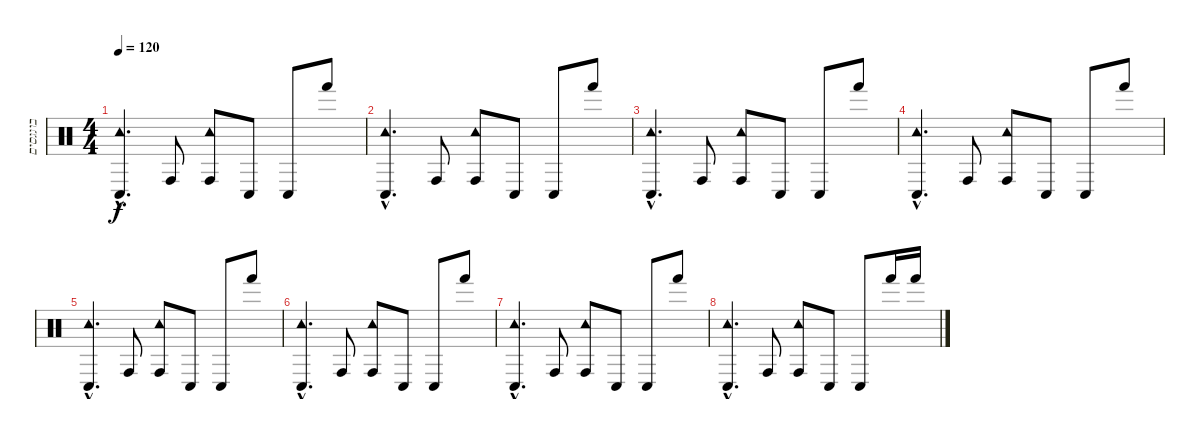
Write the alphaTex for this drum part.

\track ("בונגסים" "בונגסים") {instrument percussion}
\staff {score}
\articulation defaults
\ts (4 4)
\tempo 120
\clef neutral
\ks c
("Conga low (hit)"{hac} "Tambourine (hit)"{hac}).4{d dy f} "Conga high (hit)".8 ("Conga high (hit)" "Tambourine (hit)").8 "Conga low (hit)".8 "Conga low (hit)".8 "Hand (hit)".8 |
("Conga low (hit)"{hac} "Tambourine (hit)"{hac}).4{d} "Conga high (hit)".8 ("Conga high (hit)" "Tambourine (hit)").8 "Conga low (hit)".8 "Conga low (hit)".8 "Hand (hit)".8 |
("Conga low (hit)"{hac} "Tambourine (hit)"{hac}).4{d} "Conga high (hit)".8 ("Conga high (hit)" "Tambourine (hit)").8 "Conga low (hit)".8 "Conga low (hit)".8 "Hand (hit)".8 |
("Conga low (hit)"{hac} "Tambourine (hit)"{hac}).4{d} "Conga high (hit)".8 ("Conga high (hit)" "Tambourine (hit)").8 "Conga low (hit)".8 "Conga low (hit)".8 "Hand (hit)".8 |
("Conga low (hit)"{hac} "Tambourine (hit)"{hac}).4{d} "Conga high (hit)".8 ("Conga high (hit)" "Tambourine (hit)").8 "Conga low (hit)".8 "Conga low (hit)".8 "Hand (hit)".8 |
("Conga low (hit)"{hac} "Tambourine (hit)"{hac}).4{d} "Conga high (hit)".8 ("Conga high (hit)" "Tambourine (hit)").8 "Conga low (hit)".8 "Conga low (hit)".8 "Hand (hit)".8 |
("Conga low (hit)"{hac} "Tambourine (hit)"{hac}).4{d} "Conga high (hit)".8 ("Conga high (hit)" "Tambourine (hit)").8 "Conga low (hit)".8 "Conga low (hit)".8 "Hand (hit)".8 |
("Conga low (hit)"{hac} "Tambourine (hit)"{hac}).4{d} "Conga high (hit)".8 ("Conga high (hit)" "Tambourine (hit)").8 "Conga low (hit)".8 "Conga low (hit)".8 "Hand (hit)".16 "Hand (hit)".16
